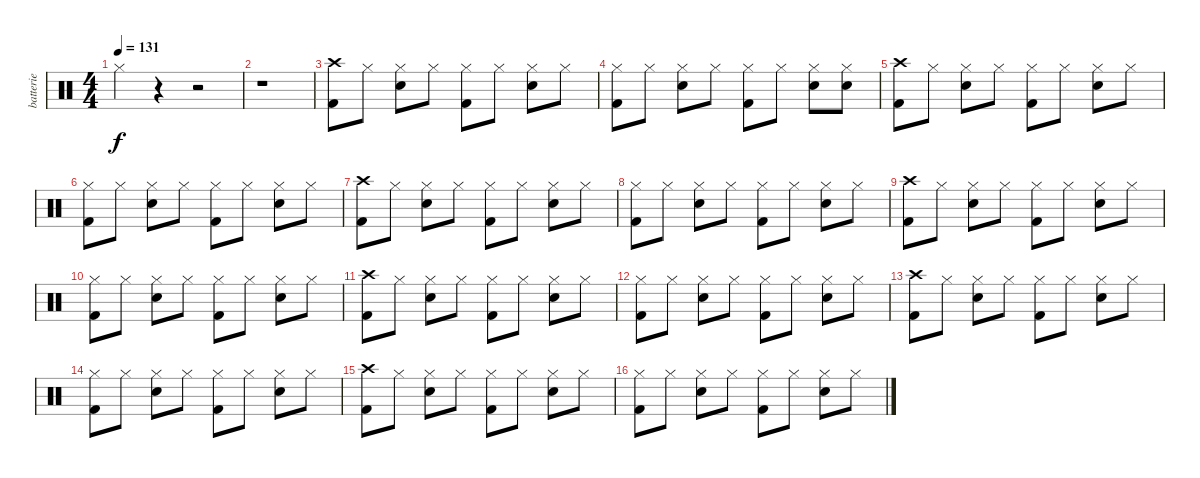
\track ("batterie" "batterie") {instrument percussion}
\staff {score}
\articulation defaults
\ts (4 4)
\tempo 131
\clef neutral
\ks c "Hi-Hat (closed)".4{dy f}
r.4 r.2 |
r.1 |
("Crash high (hit)" "Kick (hit) 2").8 "Hi-Hat (closed)".8 ("Hi-Hat (closed)" "Electric Snare (hit)").8 "Hi-Hat (closed)".8 ("Hi-Hat (closed)" "Kick (hit) 2").8 "Hi-Hat (closed)".8 ("Hi-Hat (closed)" "Electric Snare (hit)").8 "Hi-Hat (closed)".8 |
("Hi-Hat (closed)" "Kick (hit) 2").8 "Hi-Hat (closed)".8 ("Hi-Hat (closed)" "Electric Snare (hit)").8 "Hi-Hat (closed)".8 ("Hi-Hat (closed)" "Kick (hit) 2").8 "Hi-Hat (closed)".8 ("Hi-Hat (closed)" "Electric Snare (hit)").8 ("Hi-Hat (closed)" "Electric Snare (hit)").8 |
("Crash high (hit)" "Kick (hit) 2").8 "Hi-Hat (closed)".8 ("Hi-Hat (closed)" "Electric Snare (hit)").8 "Hi-Hat (closed)".8 ("Hi-Hat (closed)" "Kick (hit) 2").8 "Hi-Hat (closed)".8 ("Hi-Hat (closed)" "Electric Snare (hit)").8 "Hi-Hat (closed)".8 |
("Hi-Hat (closed)" "Kick (hit) 2").8 "Hi-Hat (closed)".8 ("Hi-Hat (closed)" "Electric Snare (hit)").8 "Hi-Hat (closed)".8 ("Hi-Hat (closed)" "Kick (hit) 2").8 "Hi-Hat (closed)".8 ("Hi-Hat (closed)" "Electric Snare (hit)").8 "Hi-Hat (closed)".8 |
("Crash high (hit)" "Kick (hit) 2").8 "Hi-Hat (closed)".8 ("Hi-Hat (closed)" "Electric Snare (hit)").8 "Hi-Hat (closed)".8 ("Hi-Hat (closed)" "Kick (hit) 2").8 "Hi-Hat (closed)".8 ("Hi-Hat (closed)" "Electric Snare (hit)").8 "Hi-Hat (closed)".8 |
("Hi-Hat (closed)" "Kick (hit) 2").8 "Hi-Hat (closed)".8 ("Hi-Hat (closed)" "Electric Snare (hit)").8 "Hi-Hat (closed)".8 ("Hi-Hat (closed)" "Kick (hit) 2").8 "Hi-Hat (closed)".8 ("Hi-Hat (closed)" "Electric Snare (hit)").8 "Hi-Hat (closed)".8 |
("Crash high (hit)" "Kick (hit) 2").8 "Hi-Hat (closed)".8 ("Hi-Hat (closed)" "Electric Snare (hit)").8 "Hi-Hat (closed)".8 ("Hi-Hat (closed)" "Kick (hit) 2").8 "Hi-Hat (closed)".8 ("Hi-Hat (closed)" "Electric Snare (hit)").8 "Hi-Hat (closed)".8 |
("Hi-Hat (closed)" "Kick (hit) 2").8 "Hi-Hat (closed)".8 ("Hi-Hat (closed)" "Electric Snare (hit)").8 "Hi-Hat (closed)".8 ("Hi-Hat (closed)" "Kick (hit) 2").8 "Hi-Hat (closed)".8 ("Hi-Hat (closed)" "Electric Snare (hit)").8 "Hi-Hat (closed)".8 |
("Crash high (hit)" "Kick (hit) 2").8 "Hi-Hat (closed)".8 ("Hi-Hat (closed)" "Electric Snare (hit)").8 "Hi-Hat (closed)".8 ("Hi-Hat (closed)" "Kick (hit) 2").8 "Hi-Hat (closed)".8 ("Hi-Hat (closed)" "Electric Snare (hit)").8 "Hi-Hat (closed)".8 |
("Hi-Hat (closed)" "Kick (hit) 2").8 "Hi-Hat (closed)".8 ("Hi-Hat (closed)" "Electric Snare (hit)").8 "Hi-Hat (closed)".8 ("Hi-Hat (closed)" "Kick (hit) 2").8 "Hi-Hat (closed)".8 ("Hi-Hat (closed)" "Electric Snare (hit)").8 "Hi-Hat (closed)".8 |
("Crash high (hit)" "Kick (hit) 2").8 "Hi-Hat (closed)".8 ("Hi-Hat (closed)" "Electric Snare (hit)").8 "Hi-Hat (closed)".8 ("Hi-Hat (closed)" "Kick (hit) 2").8 "Hi-Hat (closed)".8 ("Hi-Hat (closed)" "Electric Snare (hit)").8 "Hi-Hat (closed)".8 |
("Hi-Hat (closed)" "Kick (hit) 2").8 "Hi-Hat (closed)".8 ("Hi-Hat (closed)" "Electric Snare (hit)").8 "Hi-Hat (closed)".8 ("Hi-Hat (closed)" "Kick (hit) 2").8 "Hi-Hat (closed)".8 ("Hi-Hat (closed)" "Electric Snare (hit)").8 "Hi-Hat (closed)".8 |
("Crash high (hit)" "Kick (hit) 2").8 "Hi-Hat (closed)".8 ("Hi-Hat (closed)" "Electric Snare (hit)").8 "Hi-Hat (closed)".8 ("Hi-Hat (closed)" "Kick (hit) 2").8 "Hi-Hat (closed)".8 ("Hi-Hat (closed)" "Electric Snare (hit)").8 "Hi-Hat (closed)".8 |
("Hi-Hat (closed)" "Kick (hit) 2").8 "Hi-Hat (closed)".8 ("Hi-Hat (closed)" "Electric Snare (hit)").8 "Hi-Hat (closed)".8 ("Hi-Hat (closed)" "Kick (hit) 2").8 "Hi-Hat (closed)".8 ("Hi-Hat (closed)" "Electric Snare (hit)").8 "Hi-Hat (closed)".8
